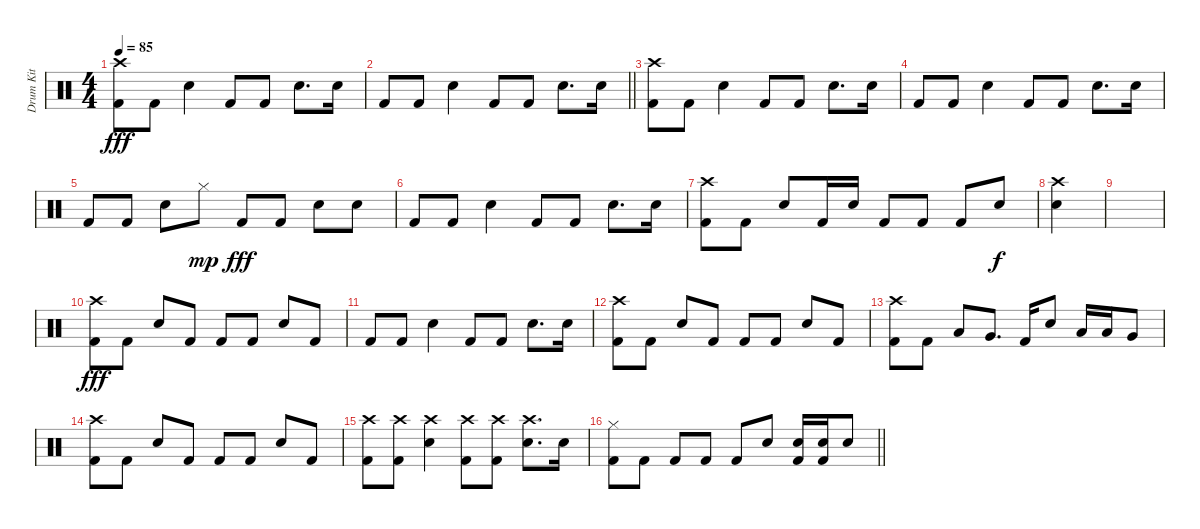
\track ("Drum Kit" "Drum Kit") {instrument percussion}
\staff {score}
\articulation defaults
\ts (4 4)
\tempo 85
\clef neutral
\ks c
("Crash high (hit)" "Kick (hit) 2").8{dy fff} "Kick (hit) 2".8 "Snare (hit) 2".4 "Kick (hit) 2".8 "Kick (hit) 2".8 "Snare (hit) 2".8{d} "Snare (hit) 2".16 |
\barLineRight lightlight "Kick (hit) 2".8 "Kick (hit) 2".8 "Snare (hit) 2".4 "Kick (hit) 2".8 "Kick (hit) 2".8 "Snare (hit) 2".8{d} "Snare (hit) 2".16
|
("Crash high (hit)" "Kick (hit) 2").8 "Kick (hit) 2".8 "Snare (hit) 2".4 "Kick (hit) 2".8 "Kick (hit) 2".8 "Snare (hit) 2".8{d} "Snare (hit) 2".16 |
"Kick (hit) 2".8 "Kick (hit) 2".8 "Snare (hit) 2".4 "Kick (hit) 2".8 "Kick (hit) 2".8 "Snare (hit) 2".8{d} "Snare (hit) 2".16 |
"Kick (hit) 2".8 "Kick (hit) 2".8 "Snare (hit) 2".8 "Hi-Hat (closed)".8{dy mp} "Kick (hit) 2".8{dy fff} "Kick (hit) 2".8 "Snare (hit) 2".8 "Snare (hit) 2".8 |
"Kick (hit) 2".8 "Kick (hit) 2".8 "Snare (hit) 2".4 "Kick (hit) 2".8 "Kick (hit) 2".8 "Snare (hit) 2".8{d} "Snare (hit) 2".16 |
("Crash high (hit)" "Kick (hit) 2").8 "Kick (hit) 2".8 "Snare (hit) 2".8 "Kick (hit) 2".16 "Snare (hit) 2".16 "Kick (hit) 2".8 "Kick (hit) 2".8 "Kick (hit) 2".8 "Snare (hit) 2".8{dy f} |
("Crash high (hit)" "Snare (hit) 2").4 |
|
("Crash high (hit)" "Kick (hit) 2").8{dy fff} "Kick (hit) 2".8 "Snare (hit) 2".8 "Kick (hit) 2".8 "Kick (hit) 2".8 "Kick (hit) 2".8 "Snare (hit) 2".8 "Kick (hit) 2".8 |
"Kick (hit) 2".8 "Kick (hit) 2".8 "Snare (hit) 2".4 "Kick (hit) 2".8 "Kick (hit) 2".8 "Snare (hit) 2".8{d} "Snare (hit) 2".16 |
("Crash high (hit)" "Kick (hit) 2").8 "Kick (hit) 2".8 "Snare (hit) 2".8 "Kick (hit) 2".8 "Kick (hit) 2".8 "Kick (hit) 2".8 "Snare (hit) 2".8 "Kick (hit) 2".8 |
("Crash high (hit)" "Kick (hit) 2").8 "Kick (hit) 2".8 "Low Tom (hit)".8 "Very Low Tom (hit)".8{d} "Kick (hit) 2".16 "Snare (hit) 2".8 "Low Tom (hit)".16 "Low Tom (hit)".16 "Very Low Tom (hit)".8 |
("Crash high (hit)" "Kick (hit) 2").8 "Kick (hit) 2".8 "Snare (hit) 2".8 "Kick (hit) 2".8 "Kick (hit) 2".8 "Kick (hit) 2".8 "Snare (hit) 2".8 "Kick (hit) 2".8 |
("Crash high (hit)" "Kick (hit) 2").8 ("Crash high (hit)" "Kick (hit) 2").8 ("Crash high (hit)" "Snare (hit) 2").4 ("Crash high (hit)" "Kick (hit) 2").8 ("Crash high (hit)" "Kick (hit) 2").8 ("Crash high (hit)" "Snare (hit) 2").8{d} "Snare (hit) 2".16 |
\barLineRight lightlight
("Hi-Hat (closed)" "Kick (hit) 2").8 "Kick (hit) 2".8 "Kick (hit) 2".8 "Kick (hit) 2".8 "Kick (hit) 2".8 "Snare (hit) 2".8 ("Snare (hit) 2" "Kick (hit) 2").16 ("Snare (hit) 2" "Kick (hit) 2").16 "Snare (hit) 2".8
